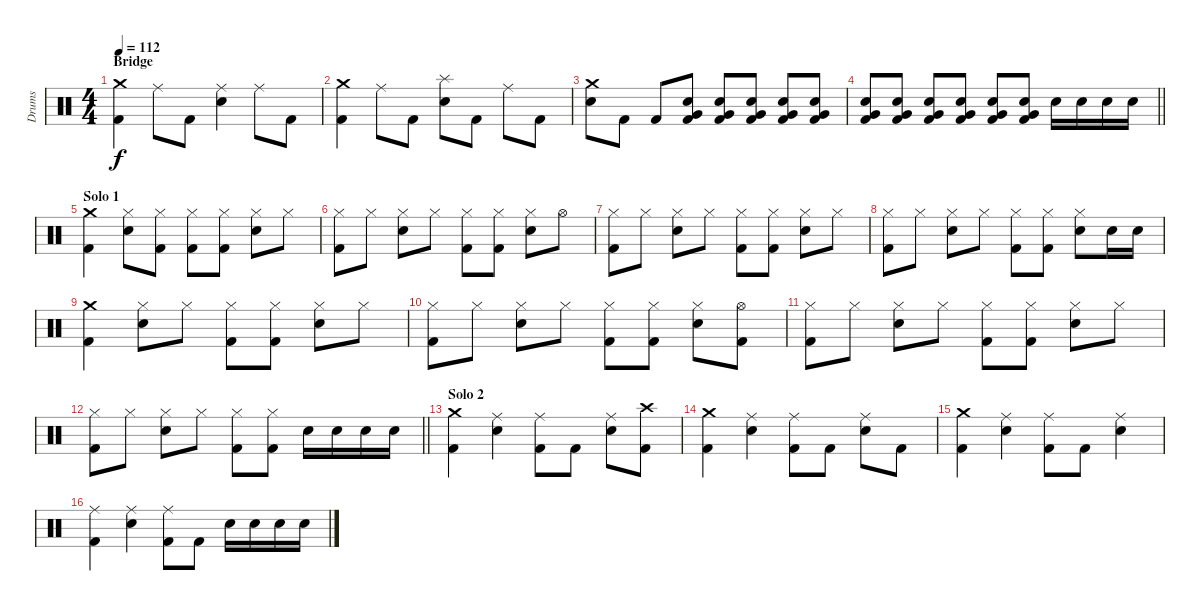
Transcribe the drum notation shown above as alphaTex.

\track ("Drums" "Drums") {instrument percussion}
\staff {score}
\articulation defaults
\ts (4 4)
\section ("" "Bridge")
\tempo 112
\clef neutral
\ks c
("Crash medium (hit)" "Kick (hit) 2").4{dy f} "Ride (middle)".8 "Kick (hit) 2".8 ("Ride (middle)" "Snare (hit) 2").4 "Ride (middle)".8 "Kick (hit) 2".8 |
("Crash medium (hit)" "Kick (hit) 2").4 "Ride (middle)".8 "Kick (hit) 2".8 ("Splash (hit)" "Snare (hit) 2").8 "Kick (hit) 2".8 "Ride (middle)".8 "Kick (hit) 2".8 |
("Crash medium (hit)" "Snare (hit) 2").8 "Kick (hit) 2".8 "Kick (hit) 2".8 ("Very Low Tom (hit)" "Snare (hit) 2" "Kick (hit) 2").8 ("Very Low Tom (hit)" "Snare (hit) 2" "Kick (hit) 2").8 ("Very Low Tom (hit)" "Snare (hit) 2" "Kick (hit) 2").8 ("Very Low Tom (hit)" "Snare (hit) 2" "Kick (hit) 2").8 ("Very Low Tom (hit)" "Snare (hit) 2" "Kick (hit) 2").8 |
\barLineRight lightlight
("Very Low Tom (hit)" "Snare (hit) 2" "Kick (hit) 2").8 ("Very Low Tom (hit)" "Snare (hit) 2" "Kick (hit) 2").8 ("Very Low Tom (hit)" "Snare (hit) 2" "Kick (hit) 2").8 ("Very Low Tom (hit)" "Snare (hit) 2" "Kick (hit) 2").8 ("Very Low Tom (hit)" "Snare (hit) 2" "Kick (hit) 2").8 ("Very Low Tom (hit)" "Snare (hit) 2" "Kick (hit) 2").8 "Snare (hit) 2".16 "Snare (hit) 2".16 "Snare (hit) 2".16 "Snare (hit) 2".16 |
\section ("" "Solo 1")
("Crash medium (hit)" "Kick (hit) 2").4 ("Hi-Hat (closed)" "Snare (hit) 2").8 ("Hi-Hat (closed)" "Kick (hit) 2").8 ("Hi-Hat (closed)" "Kick (hit) 2").8 ("Hi-Hat (closed)" "Kick (hit) 2").8 ("Hi-Hat (closed)" "Snare (hit) 2").8 "Hi-Hat (closed)".8 |
("Hi-Hat (closed)" "Kick (hit) 2").8 "Hi-Hat (closed)".8 ("Hi-Hat (closed)" "Snare (hit) 2").8 "Hi-Hat (closed)".8 ("Hi-Hat (closed)" "Kick (hit) 2").8 ("Hi-Hat (closed)" "Kick (hit) 2").8 ("Hi-Hat (closed)" "Snare (hit) 2").8 "Hi-Hat (open)".8 |
("Hi-Hat (closed)" "Kick (hit) 2").8 "Hi-Hat (closed)".8 ("Hi-Hat (closed)" "Snare (hit) 2").8 "Hi-Hat (closed)".8 ("Hi-Hat (closed)" "Kick (hit) 2").8 ("Hi-Hat (closed)" "Kick (hit) 2").8 ("Hi-Hat (closed)" "Snare (hit) 2").8 "Hi-Hat (closed)".8 |
("Hi-Hat (closed)" "Kick (hit) 2").8 "Hi-Hat (closed)".8 ("Hi-Hat (closed)" "Snare (hit) 2").8 "Hi-Hat (closed)".8 ("Hi-Hat (closed)" "Kick (hit) 2").8 ("Hi-Hat (closed)" "Kick (hit) 2").8 ("Hi-Hat (closed)" "Snare (hit) 2").8 "Snare (hit) 2".16 "Snare (hit) 2".16 |
("Crash medium (hit)" "Kick (hit) 2").4 ("Hi-Hat (closed)" "Snare (hit) 2").8 "Hi-Hat (closed)".8 ("Hi-Hat (closed)" "Kick (hit) 2").8 ("Hi-Hat (closed)" "Kick (hit) 2").8 ("Hi-Hat (closed)" "Snare (hit) 2").8 "Hi-Hat (closed)".8 |
("Hi-Hat (closed)" "Kick (hit) 2").8 "Hi-Hat (closed)".8 ("Hi-Hat (closed)" "Snare (hit) 2").8 "Hi-Hat (closed)".8 ("Hi-Hat (closed)" "Kick (hit) 2").8 ("Hi-Hat (closed)" "Kick (hit) 2").8 ("Hi-Hat (closed)" "Snare (hit) 2").8 ("Hi-Hat (open)" "Kick (hit) 2").8 |
("Hi-Hat (closed)" "Kick (hit) 2").8 "Hi-Hat (closed)".8 ("Hi-Hat (closed)" "Snare (hit) 2").8 "Hi-Hat (closed)".8 ("Hi-Hat (closed)" "Kick (hit) 2").8 ("Hi-Hat (closed)" "Kick (hit) 2").8 ("Hi-Hat (closed)" "Snare (hit) 2").8 "Hi-Hat (closed)".8 |
\barLineRight lightlight
("Hi-Hat (closed)" "Kick (hit) 2").8 "Hi-Hat (closed)".8 ("Hi-Hat (closed)" "Snare (hit) 2").8 "Hi-Hat (closed)".8 ("Hi-Hat (closed)" "Kick (hit) 2").8 ("Hi-Hat (closed)" "Kick (hit) 2").8 "Snare (hit) 2".16 "Snare (hit) 2".16 "Snare (hit) 2".16 "Snare (hit) 2".16 |
\section ("" "Solo 2")
("Crash medium (hit)" "Kick (hit) 2").4 ("Ride (middle)" "Snare (hit) 2").4 ("Ride (middle)" "Kick (hit) 2").8 "Kick (hit) 2".8 ("Ride (middle)" "Snare (hit) 2").8 ("Crash high (hit)" "Kick (hit) 2").8 |
("Crash medium (hit)" "Kick (hit) 2").4 ("Ride (middle)" "Snare (hit) 2").4 ("Ride (middle)" "Kick (hit) 2").8 "Kick (hit) 2".8 ("Ride (middle)" "Snare (hit) 2").8 "Kick (hit) 2".8 |
("Crash medium (hit)" "Kick (hit) 2").4 ("Ride (middle)" "Snare (hit) 2").4 ("Ride (middle)" "Kick (hit) 2").8 "Kick (hit) 2".8 ("Ride (middle)" "Snare (hit) 2").4 |
("Ride (middle)" "Kick (hit) 2").4 ("Ride (middle)" "Snare (hit) 2").4 ("Ride (middle)" "Kick (hit) 2").8 "Kick (hit) 2".8 "Snare (hit) 2".16 "Snare (hit) 2".16 "Snare (hit) 2".16 "Snare (hit) 2".16
